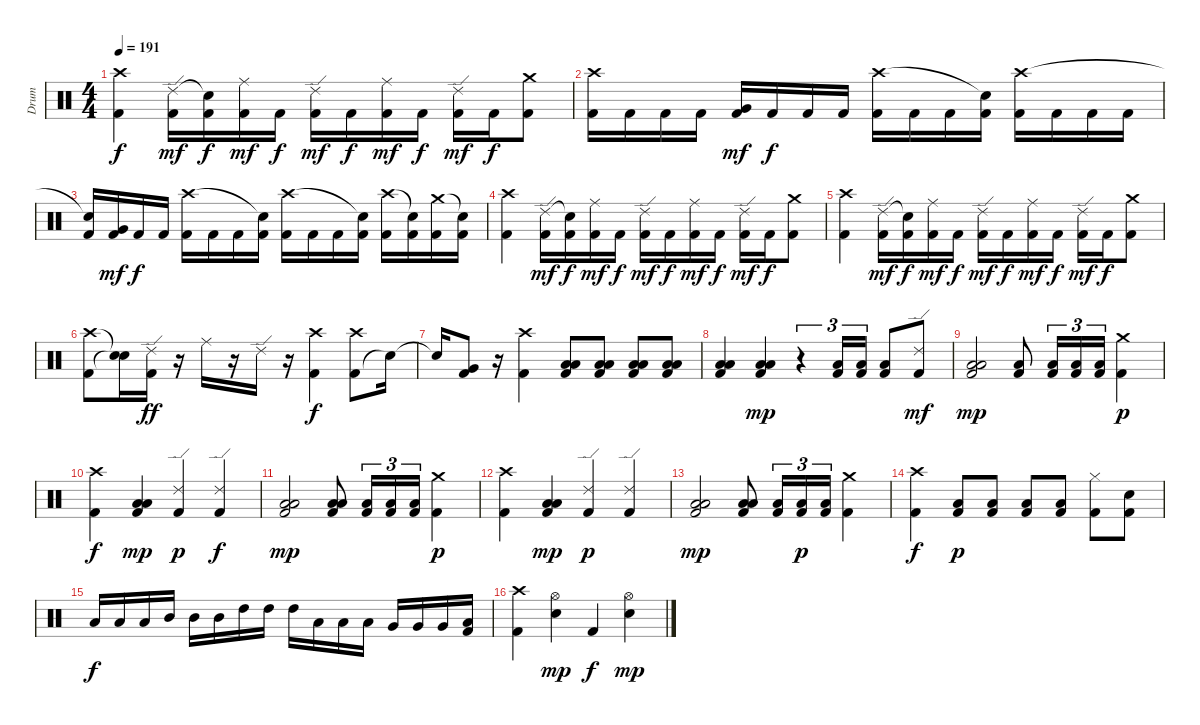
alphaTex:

\track ("Drum" "Drum") {instrument percussion}
\staff {score}
\articulation defaults
\ts (4 4)
\tempo 191
\clef neutral
\ks c
("Kick (hit) 2" "Crash high (hit)").4{dy f} ("Kick (hit) 2" "Ride (edge) 2").16{dy mf} ("Kick (hit) 2" "Snare (hit)"{t}).16{dy f} ("Kick (hit) 2" "Ride (middle)").16{dy mf} "Kick (hit) 2".16{dy f} ("Kick (hit) 2" "Ride (edge) 2").16{dy mf} "Kick (hit) 2".16{dy f} ("Kick (hit) 2" "Ride (middle)").16{dy mf} "Kick (hit) 2".16{dy f} ("Kick (hit) 2" "Ride (edge) 2").16{dy mf} "Kick (hit) 2".16{dy f} ("Kick (hit) 2" "Crash medium (hit)").8 |
("Kick (hit) 2" "Crash high (hit)").16 "Kick (hit) 2".16 "Kick (hit) 2".16 "Kick (hit) 2".16 ("Kick (hit) 2" "Very Low Tom (hit)").16{dy mf} "Kick (hit) 2".16{dy f} "Kick (hit) 2".16 "Kick (hit) 2".16 ("Kick (hit) 2" "Crash high (hit)").16 "Kick (hit) 2".16 "Kick (hit) 2".16 ("Kick (hit) 2" "Snare (hit)"{t}).16 ("Kick (hit) 2" "Crash high (hit)").16 "Kick (hit) 2".16 "Kick (hit) 2".16 "Kick (hit) 2".16 |
("Kick (hit) 2" "Snare (hit)"{t}).16 ("Kick (hit) 2" "Very Low Tom (hit)").16{dy mf} "Kick (hit) 2".16{dy f} "Kick (hit) 2".16 ("Kick (hit) 2" "Crash high (hit)").16 "Kick (hit) 2".16 "Kick (hit) 2".16 ("Kick (hit) 2" "Snare (hit)"{t}).16 ("Kick (hit) 2" "Crash high (hit)").16 "Kick (hit) 2".16 "Kick (hit) 2".16 ("Kick (hit) 2" "Snare (hit)"{t}).16 ("Kick (hit) 2" "Crash high (hit)").16 ("Kick (hit) 2" "Snare (hit)"{t}).16 ("Kick (hit) 2" "Crash medium (hit)").16 ("Kick (hit) 2" "Snare (hit)"{t}).16 |
("Kick (hit) 2" "Crash high (hit)").4 ("Kick (hit) 2" "Ride (edge) 2").16{dy mf} ("Kick (hit) 2" "Snare (hit)"{t}).16{dy f} ("Kick (hit) 2" "Ride (middle)").16{dy mf} "Kick (hit) 2".16{dy f} ("Kick (hit) 2" "Ride (edge) 2").16{dy mf} "Kick (hit) 2".16{dy f} ("Kick (hit) 2" "Ride (middle)").16{dy mf} "Kick (hit) 2".16{dy f} ("Kick (hit) 2" "Ride (edge) 2").16{dy mf} "Kick (hit) 2".16{dy f} ("Kick (hit) 2" "Crash medium (hit)").8 |
("Kick (hit) 2" "Crash high (hit)").4 ("Kick (hit) 2" "Ride (edge) 2").16{dy mf} ("Kick (hit) 2" "Snare (hit)"{t}).16{dy f} ("Kick (hit) 2" "Ride (middle)").16{dy mf} "Kick (hit) 2".16{dy f} ("Kick (hit) 2" "Ride (edge) 2").16{dy mf} "Kick (hit) 2".16{dy f} ("Kick (hit) 2" "Ride (middle)").16{dy mf} "Kick (hit) 2".16{dy f} ("Kick (hit) 2" "Ride (edge) 2").16{dy mf} "Kick (hit) 2".16{dy f} ("Kick (hit) 2" "Crash medium (hit)").8 |
("Kick (hit) 2" "Crash high (hit)").8 ("Snare (hit)"{t} "Snare (hit)"{t}).16 ("Kick (hit) 2" "Ride (edge) 2").16{dy ff} r.16 "Ride (middle)".16 r.16 "Ride (edge) 2".16 r.16 ("Kick (hit) 2" "Crash high (hit)").4{dy f} ("Kick (hit) 2" "Crash high (hit)").8 "Snare (hit)"{t}.16 |
"Snare (hit)"{t}.16 ("Kick (hit) 2" "Very Low Tom (hit)").8 r.16 ("Kick (hit) 2" "Crash high (hit)").4 ("Kick (hit) 2" "Low Floor Tom (hit)" "Low Floor Tom (hit)").8 ("Kick (hit) 2" "Low Floor Tom (hit)" "Low Floor Tom (hit)").8 ("Kick (hit) 2" "Low Floor Tom (hit)" "Low Floor Tom (hit)").8 ("Kick (hit) 2" "Low Floor Tom (hit)" "Low Floor Tom (hit)").8 |
("Kick (hit) 2" "Low Floor Tom (hit)" "Low Floor Tom (hit)").4 ("Kick (hit) 2" "Low Floor Tom (hit)" "Low Floor Tom (hit)").4{dy mp} r.4{tu (3 2)} ("Kick (hit) 2" "Low Floor Tom (hit)").16{tu (3 2)} ("Kick (hit) 2" "Low Floor Tom (hit)").16{tu (3 2)} ("Kick (hit) 2" "Low Floor Tom (hit)").8 ("Kick (hit) 2" "Ride (edge) 2").8{dy mf} |
("Kick (hit) 2" "Low Floor Tom (hit)" "Low Floor Tom (hit)").2{dy mp} ("Kick (hit) 2" "Low Floor Tom (hit)").8 ("Kick (hit) 2" "Low Floor Tom (hit)").16{tu (3 2)} ("Kick (hit) 2" "Low Floor Tom (hit)").16{tu (3 2)} ("Kick (hit) 2" "Low Floor Tom (hit)").16{tu (3 2)} ("Kick (hit) 2" "Crash medium (hit)").4{dy p} |
("Kick (hit) 2" "Crash high (hit)").4{dy f} ("Kick (hit) 2" "Low Floor Tom (hit)" "Low Floor Tom (hit)").4{dy mp} ("Kick (hit) 2" "Ride (edge) 2").4{dy p} ("Kick (hit) 2" "Ride (edge) 2").4{dy f} |
("Kick (hit) 2" "Low Floor Tom (hit)" "Low Floor Tom (hit)").2{dy mp} ("Kick (hit) 2" "Low Floor Tom (hit)" "Low Floor Tom (hit)").8 ("Kick (hit) 2" "Low Floor Tom (hit)").16{tu (3 2)} ("Kick (hit) 2" "Low Floor Tom (hit)").16{tu (3 2)} ("Kick (hit) 2" "Low Floor Tom (hit)").16{tu (3 2)} ("Kick (hit) 2" "Crash medium (hit)").4{dy p} |
("Kick (hit) 2" "Crash high (hit)").4 ("Kick (hit) 2" "Low Floor Tom (hit)" "Low Floor Tom (hit)").4{dy mp} ("Kick (hit) 2" "Ride (edge) 2").4{dy p} ("Kick (hit) 2" "Ride (edge) 2").4 |
("Kick (hit) 2" "Low Floor Tom (hit)" "Low Floor Tom (hit)").2{dy mp} ("Kick (hit) 2" "Low Floor Tom (hit)" "Low Floor Tom (hit)").8 ("Kick (hit) 2" "Low Floor Tom (hit)").16{tu (3 2)} ("Kick (hit) 2" "Low Floor Tom (hit)").16{tu (3 2) dy p} ("Kick (hit) 2" "Low Floor Tom (hit)").16{tu (3 2)} ("Kick (hit) 2" "Crash medium (hit)").4 |
("Kick (hit) 2" "Crash high (hit)").4{dy f} ("Kick (hit) 2" "Low Floor Tom (hit)").8{dy p} ("Kick (hit) 2" "Low Floor Tom (hit)").8 ("Kick (hit) 2" "Low Floor Tom (hit)").8 ("Kick (hit) 2" "Low Floor Tom (hit)").8 ("Kick (hit) 2" "Hi-Hat (closed)").8 ("Kick (hit) 2" "Snare (hit) 2").8 |
"Low Tom (hit)".16{dy f} "Low Tom (hit)".16 "Low Tom (hit)".16 "Mid Tom (hit)".16 "Mid Tom (hit)".16 "Mid Tom (hit)".16 "High Tom (hit)".16 "High Tom (hit)".16 "High Tom (hit)".16 "Low Tom (hit)".16 "Low Tom (hit)".16 "Low Tom (hit)".16 "Very Low Tom (hit)".16 "Very Low Tom (hit)".16 "Very Low Tom (hit)".16 ("Kick (hit) 2" "Low Floor Tom (hit)").16 |
("Kick (hit) 2" "Crash high (hit)").4 ("Snare (hit) 2" "Hi-Hat (open)").4{dy mp} "Kick (hit) 2".4{dy f} ("Snare (hit) 2" "Hi-Hat (open)").4{dy mp}
